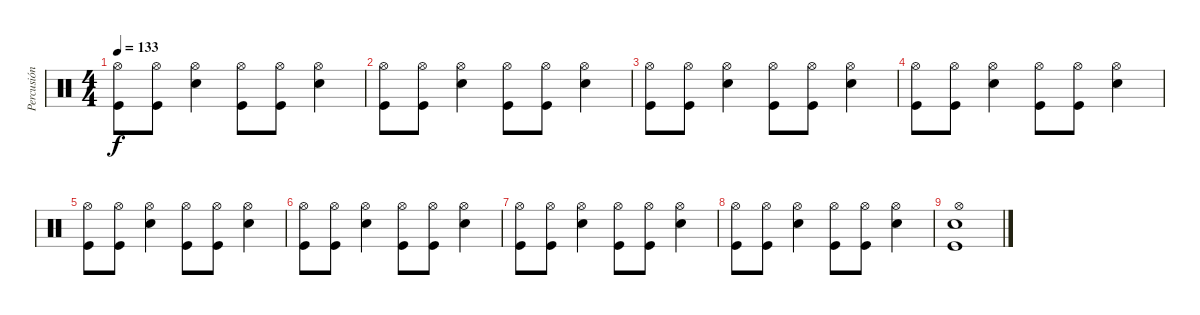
\track ("Percusión" "Percusión") {instrument percussion}
\staff {score}
\articulation defaults
\ts (4 4)
\tempo 133
\clef neutral
\ks c
("Kick (hit)" "Hi-Hat (open)").8{dy f} ("Kick (hit)" "Hi-Hat (open)").8 ("Snare (hit) 2" "Hi-Hat (open)").4 ("Kick (hit)" "Hi-Hat (open)").8 ("Kick (hit)" "Hi-Hat (open)").8 ("Snare (hit) 2" "Hi-Hat (open)").4 |
("Kick (hit)" "Hi-Hat (open)").8 ("Kick (hit)" "Hi-Hat (open)").8 ("Snare (hit) 2" "Hi-Hat (open)").4 ("Kick (hit)" "Hi-Hat (open)").8 ("Kick (hit)" "Hi-Hat (open)").8 ("Snare (hit) 2" "Hi-Hat (open)").4 |
("Kick (hit)" "Hi-Hat (open)").8 ("Kick (hit)" "Hi-Hat (open)").8 ("Snare (hit) 2" "Hi-Hat (open)").4 ("Kick (hit)" "Hi-Hat (open)").8 ("Kick (hit)" "Hi-Hat (open)").8 ("Snare (hit) 2" "Hi-Hat (open)").4 |
("Kick (hit)" "Hi-Hat (open)").8 ("Kick (hit)" "Hi-Hat (open)").8 ("Snare (hit) 2" "Hi-Hat (open)").4 ("Kick (hit)" "Hi-Hat (open)").8 ("Kick (hit)" "Hi-Hat (open)").8 ("Snare (hit) 2" "Hi-Hat (open)").4 |
("Kick (hit)" "Hi-Hat (open)").8 ("Kick (hit)" "Hi-Hat (open)").8 ("Snare (hit) 2" "Hi-Hat (open)").4 ("Kick (hit)" "Hi-Hat (open)").8 ("Kick (hit)" "Hi-Hat (open)").8 ("Snare (hit) 2" "Hi-Hat (open)").4 |
("Kick (hit)" "Hi-Hat (open)").8 ("Kick (hit)" "Hi-Hat (open)").8 ("Snare (hit) 2" "Hi-Hat (open)").4 ("Kick (hit)" "Hi-Hat (open)").8 ("Kick (hit)" "Hi-Hat (open)").8 ("Snare (hit) 2" "Hi-Hat (open)").4 |
("Kick (hit)" "Hi-Hat (open)").8 ("Kick (hit)" "Hi-Hat (open)").8 ("Snare (hit) 2" "Hi-Hat (open)").4 ("Kick (hit)" "Hi-Hat (open)").8 ("Kick (hit)" "Hi-Hat (open)").8 ("Snare (hit) 2" "Hi-Hat (open)").4 |
("Kick (hit)" "Hi-Hat (open)").8 ("Kick (hit)" "Hi-Hat (open)").8 ("Snare (hit) 2" "Hi-Hat (open)").4 ("Kick (hit)" "Hi-Hat (open)").8 ("Kick (hit)" "Hi-Hat (open)").8 ("Snare (hit) 2" "Hi-Hat (open)").4 |
("Kick (hit)" "Hi-Hat (open)" "Snare (hit) 2").1
